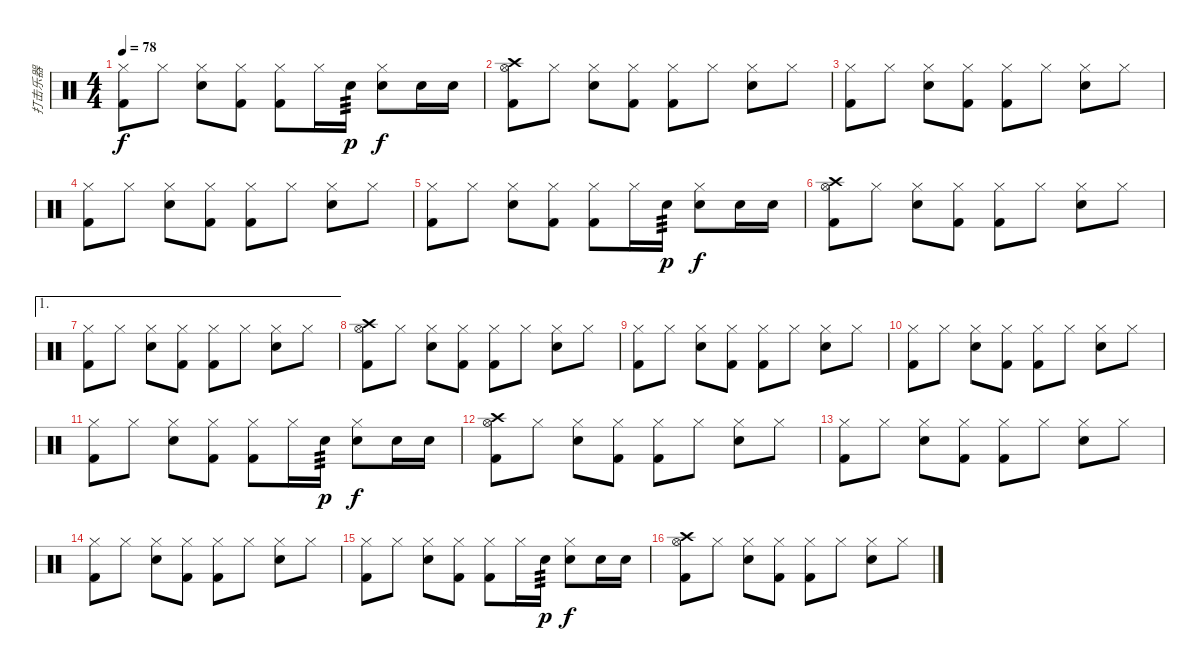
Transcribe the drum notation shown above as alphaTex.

\track ("打击乐器" "打击乐器") {instrument percussion}
\staff {score}
\articulation defaults
\ts (4 4)
\tempo 78
\clef neutral
\ks c
("Hi-Hat (closed)" "Kick (hit) 2").8{dy f} "Hi-Hat (closed)".8 ("Hi-Hat (closed)" "Electric Snare (hit)").8 ("Hi-Hat (closed)" "Kick (hit) 2").8 ("Hi-Hat (closed)" "Kick (hit) 2").8 "Hi-Hat (closed)".16 "Electric Snare (hit)".16{tp 3 dy p} ("Hi-Hat (closed)" "Electric Snare (hit)").8{dy f} "Electric Snare (hit)".16 "Electric Snare (hit)".16 |
("Crash high (hit)" "Hi-Hat (open)" "Kick (hit) 2").8 "Hi-Hat (closed)".8 ("Hi-Hat (closed)" "Electric Snare (hit)").8 ("Hi-Hat (closed)" "Kick (hit) 2").8 ("Hi-Hat (closed)" "Kick (hit) 2").8 "Hi-Hat (closed)".8 ("Hi-Hat (closed)" "Electric Snare (hit)").8 "Hi-Hat (closed)".8 |
("Hi-Hat (closed)" "Kick (hit) 2").8 "Hi-Hat (closed)".8 ("Hi-Hat (closed)" "Electric Snare (hit)").8 ("Hi-Hat (closed)" "Kick (hit) 2").8 ("Hi-Hat (closed)" "Kick (hit) 2").8 "Hi-Hat (closed)".8 ("Hi-Hat (closed)" "Electric Snare (hit)").8 "Hi-Hat (closed)".8 |
("Hi-Hat (closed)" "Kick (hit) 2").8 "Hi-Hat (closed)".8 ("Hi-Hat (closed)" "Electric Snare (hit)").8 ("Hi-Hat (closed)" "Kick (hit) 2").8 ("Hi-Hat (closed)" "Kick (hit) 2").8 "Hi-Hat (closed)".8 ("Hi-Hat (closed)" "Electric Snare (hit)").8 "Hi-Hat (closed)".8 |
("Hi-Hat (closed)" "Kick (hit) 2").8 "Hi-Hat (closed)".8 ("Hi-Hat (closed)" "Electric Snare (hit)").8 ("Hi-Hat (closed)" "Kick (hit) 2").8 ("Hi-Hat (closed)" "Kick (hit) 2").8 "Hi-Hat (closed)".16 "Electric Snare (hit)".16{tp 3 dy p} ("Hi-Hat (closed)" "Electric Snare (hit)").8{dy f} "Electric Snare (hit)".16 "Electric Snare (hit)".16 |
("Crash high (hit)" "Hi-Hat (open)" "Kick (hit) 2").8 "Hi-Hat (closed)".8 ("Hi-Hat (closed)" "Electric Snare (hit)").8 ("Hi-Hat (closed)" "Kick (hit) 2").8 ("Hi-Hat (closed)" "Kick (hit) 2").8 "Hi-Hat (closed)".8 ("Hi-Hat (closed)" "Electric Snare (hit)").8 "Hi-Hat (closed)".8 |
\ae 1
("Hi-Hat (closed)" "Kick (hit) 2").8 "Hi-Hat (closed)".8 ("Hi-Hat (closed)" "Electric Snare (hit)").8 ("Hi-Hat (closed)" "Kick (hit) 2").8 ("Hi-Hat (closed)" "Kick (hit) 2").8 "Hi-Hat (closed)".8 ("Hi-Hat (closed)" "Electric Snare (hit)").8 "Hi-Hat (closed)".8 |
("Crash high (hit)" "Hi-Hat (open)" "Kick (hit) 2").8 "Hi-Hat (closed)".8 ("Hi-Hat (closed)" "Electric Snare (hit)").8 ("Hi-Hat (closed)" "Kick (hit) 2").8 ("Hi-Hat (closed)" "Kick (hit) 2").8 "Hi-Hat (closed)".8 ("Hi-Hat (closed)" "Electric Snare (hit)").8 "Hi-Hat (closed)".8 |
("Hi-Hat (closed)" "Kick (hit) 2").8 "Hi-Hat (closed)".8 ("Hi-Hat (closed)" "Electric Snare (hit)").8 ("Hi-Hat (closed)" "Kick (hit) 2").8 ("Hi-Hat (closed)" "Kick (hit) 2").8 "Hi-Hat (closed)".8 ("Hi-Hat (closed)" "Electric Snare (hit)").8 "Hi-Hat (closed)".8 |
("Hi-Hat (closed)" "Kick (hit) 2").8 "Hi-Hat (closed)".8 ("Hi-Hat (closed)" "Electric Snare (hit)").8 ("Hi-Hat (closed)" "Kick (hit) 2").8 ("Hi-Hat (closed)" "Kick (hit) 2").8 "Hi-Hat (closed)".8 ("Hi-Hat (closed)" "Electric Snare (hit)").8 "Hi-Hat (closed)".8 |
("Hi-Hat (closed)" "Kick (hit) 2").8 "Hi-Hat (closed)".8 ("Hi-Hat (closed)" "Electric Snare (hit)").8 ("Hi-Hat (closed)" "Kick (hit) 2").8 ("Hi-Hat (closed)" "Kick (hit) 2").8 "Hi-Hat (closed)".16 "Electric Snare (hit)".16{tp 3 dy p} ("Hi-Hat (closed)" "Electric Snare (hit)").8{dy f} "Electric Snare (hit)".16 "Electric Snare (hit)".16 |
("Crash high (hit)" "Hi-Hat (open)" "Kick (hit) 2").8 "Hi-Hat (closed)".8 ("Hi-Hat (closed)" "Electric Snare (hit)").8 ("Hi-Hat (closed)" "Kick (hit) 2").8 ("Hi-Hat (closed)" "Kick (hit) 2").8 "Hi-Hat (closed)".8 ("Hi-Hat (closed)" "Electric Snare (hit)").8 "Hi-Hat (closed)".8 |
("Hi-Hat (closed)" "Kick (hit) 2").8 "Hi-Hat (closed)".8 ("Hi-Hat (closed)" "Electric Snare (hit)").8 ("Hi-Hat (closed)" "Kick (hit) 2").8 ("Hi-Hat (closed)" "Kick (hit) 2").8 "Hi-Hat (closed)".8 ("Hi-Hat (closed)" "Electric Snare (hit)").8 "Hi-Hat (closed)".8 |
("Hi-Hat (closed)" "Kick (hit) 2").8 "Hi-Hat (closed)".8 ("Hi-Hat (closed)" "Electric Snare (hit)").8 ("Hi-Hat (closed)" "Kick (hit) 2").8 ("Hi-Hat (closed)" "Kick (hit) 2").8 "Hi-Hat (closed)".8 ("Hi-Hat (closed)" "Electric Snare (hit)").8 "Hi-Hat (closed)".8 |
("Hi-Hat (closed)" "Kick (hit) 2").8 "Hi-Hat (closed)".8 ("Hi-Hat (closed)" "Electric Snare (hit)").8 ("Hi-Hat (closed)" "Kick (hit) 2").8 ("Hi-Hat (closed)" "Kick (hit) 2").8 "Hi-Hat (closed)".16 "Electric Snare (hit)".16{tp 3 dy p} ("Hi-Hat (closed)" "Electric Snare (hit)").8{dy f} "Electric Snare (hit)".16 "Electric Snare (hit)".16 |
("Crash high (hit)" "Hi-Hat (open)" "Kick (hit) 2").8 "Hi-Hat (closed)".8 ("Hi-Hat (closed)" "Electric Snare (hit)").8 ("Hi-Hat (closed)" "Kick (hit) 2").8 ("Hi-Hat (closed)" "Kick (hit) 2").8 "Hi-Hat (closed)".8 ("Hi-Hat (closed)" "Electric Snare (hit)").8 "Hi-Hat (closed)".8
